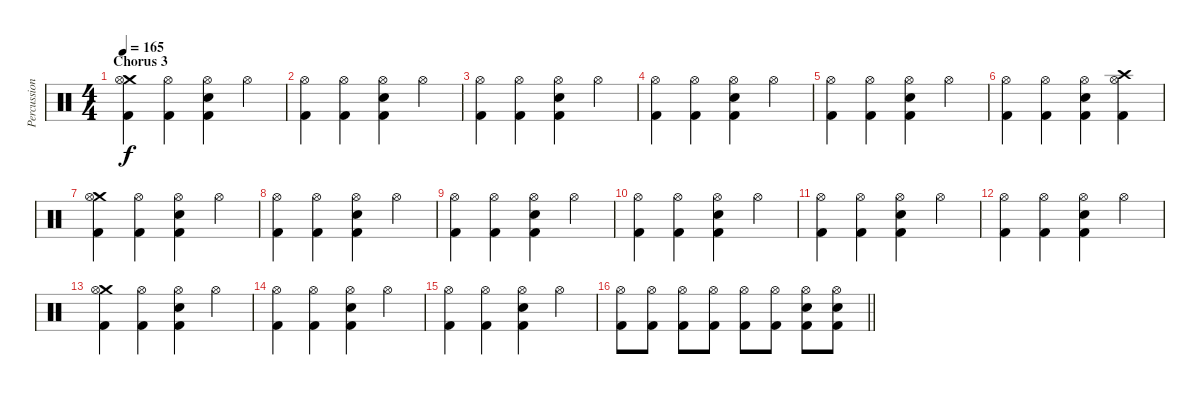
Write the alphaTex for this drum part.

\track ("Percussions" "Percussion") {instrument percussion}
\staff {score}
\articulation defaults
\ts (4 4)
\section ("" "Chorus 3")
\tempo 165
\clef neutral
\ks c
("Crash medium (hit)" "Hi-Hat (open)" "Kick (hit) 2").4{dy f} ("Hi-Hat (open)" "Kick (hit) 2").4 ("Hi-Hat (open)" "Electric Snare (hit)" "Kick (hit) 2").4 "Hi-Hat (open)".4 |
("Hi-Hat (open)" "Kick (hit) 2").4 ("Hi-Hat (open)" "Kick (hit) 2").4 ("Hi-Hat (open)" "Electric Snare (hit)" "Kick (hit) 2").4 "Hi-Hat (open)".4 |
("Hi-Hat (open)" "Kick (hit) 2").4 ("Hi-Hat (open)" "Kick (hit) 2").4 ("Hi-Hat (open)" "Electric Snare (hit)" "Kick (hit) 2").4 "Hi-Hat (open)".4 |
("Hi-Hat (open)" "Kick (hit) 2").4 ("Hi-Hat (open)" "Kick (hit) 2").4 ("Hi-Hat (open)" "Electric Snare (hit)" "Kick (hit) 2").4 "Hi-Hat (open)".4 |
("Hi-Hat (open)" "Kick (hit) 2").4 ("Hi-Hat (open)" "Kick (hit) 2").4 ("Hi-Hat (open)" "Electric Snare (hit)" "Kick (hit) 2").4 "Hi-Hat (open)".4 |
("Hi-Hat (open)" "Kick (hit) 2").4 ("Hi-Hat (open)" "Kick (hit) 2").4 ("Hi-Hat (open)" "Electric Snare (hit)" "Kick (hit) 2").4 ("Crash high (hit)" "Hi-Hat (open)" "Kick (hit) 2").4 |
("Crash medium (hit)" "Hi-Hat (open)" "Kick (hit) 2").4 ("Hi-Hat (open)" "Kick (hit) 2").4 ("Hi-Hat (open)" "Electric Snare (hit)" "Kick (hit) 2").4 "Hi-Hat (open)".4 |
("Hi-Hat (open)" "Kick (hit) 2").4 ("Hi-Hat (open)" "Kick (hit) 2").4 ("Hi-Hat (open)" "Electric Snare (hit)" "Kick (hit) 2").4 "Hi-Hat (open)".4 |
("Hi-Hat (open)" "Kick (hit) 2").4 ("Hi-Hat (open)" "Kick (hit) 2").4 ("Hi-Hat (open)" "Electric Snare (hit)" "Kick (hit) 2").4 "Hi-Hat (open)".4 |
("Hi-Hat (open)" "Kick (hit) 2").4 ("Hi-Hat (open)" "Kick (hit) 2").4 ("Hi-Hat (open)" "Electric Snare (hit)" "Kick (hit) 2").4 "Hi-Hat (open)".4 |
("Hi-Hat (open)" "Kick (hit) 2").4 ("Hi-Hat (open)" "Kick (hit) 2").4 ("Hi-Hat (open)" "Electric Snare (hit)" "Kick (hit) 2").4 "Hi-Hat (open)".4 |
("Hi-Hat (open)" "Kick (hit) 2").4 ("Hi-Hat (open)" "Kick (hit) 2").4 ("Hi-Hat (open)" "Electric Snare (hit)" "Kick (hit) 2").4 "Hi-Hat (open)".4 |
("Crash medium (hit)" "Hi-Hat (open)" "Kick (hit) 2").4 ("Hi-Hat (open)" "Kick (hit) 2").4 ("Hi-Hat (open)" "Electric Snare (hit)" "Kick (hit) 2").4 "Hi-Hat (open)".4 |
("Hi-Hat (open)" "Kick (hit) 2").4 ("Hi-Hat (open)" "Kick (hit) 2").4 ("Hi-Hat (open)" "Electric Snare (hit)" "Kick (hit) 2").4 "Hi-Hat (open)".4 |
("Hi-Hat (open)" "Kick (hit) 2").4 ("Hi-Hat (open)" "Kick (hit) 2").4 ("Hi-Hat (open)" "Electric Snare (hit)" "Kick (hit) 2").4 "Hi-Hat (open)".4 |
\barLineRight lightlight
("Hi-Hat (open)" "Kick (hit) 2").8 ("Hi-Hat (open)" "Kick (hit) 2").8 ("Hi-Hat (open)" "Kick (hit) 2").8 ("Hi-Hat (open)" "Kick (hit) 2").8 ("Hi-Hat (open)" "Kick (hit) 2").8 ("Hi-Hat (open)" "Kick (hit) 2").8 ("Hi-Hat (open)" "Electric Snare (hit)" "Kick (hit) 2").8 ("Hi-Hat (open)" "Electric Snare (hit)" "Kick (hit) 2").8
